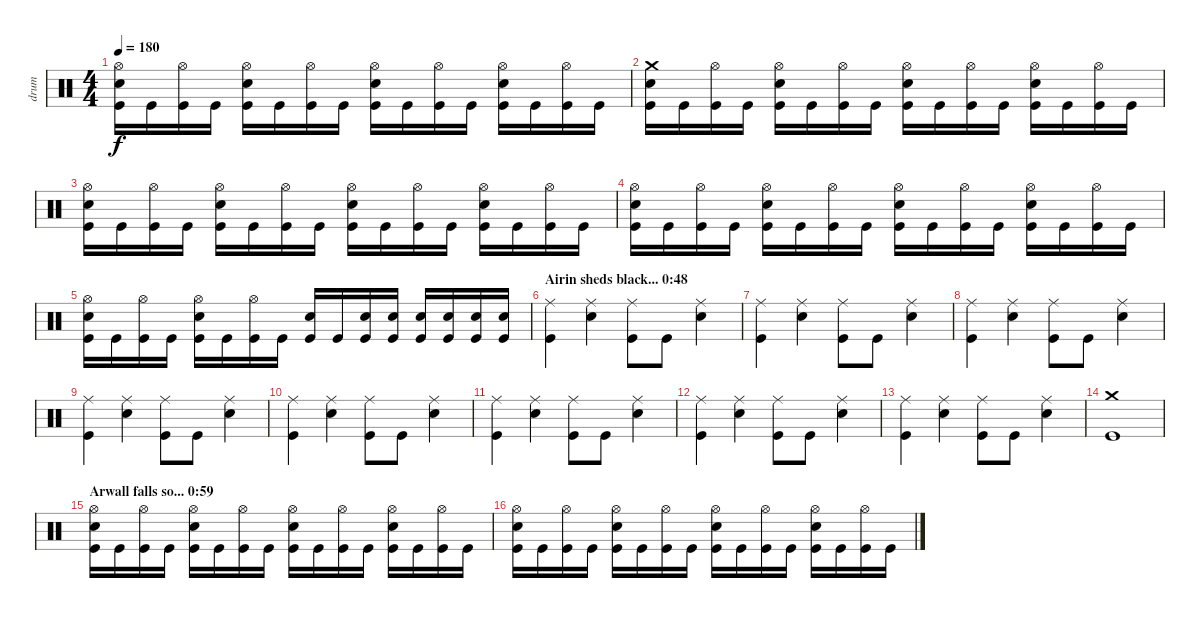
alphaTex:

\track ("drum" "drum") {instrument percussion}
\staff {score}
\articulation defaults
\ts (4 4)
\tempo 180
\clef neutral
\ks c
("Hi-Hat (open)" "Snare (hit) 2" "Kick (hit)").16{dy f} "Kick (hit)".16 ("Hi-Hat (open)" "Kick (hit)").16 "Kick (hit)".16 ("Hi-Hat (open)" "Snare (hit) 2" "Kick (hit)").16 "Kick (hit)".16 ("Hi-Hat (open)" "Kick (hit)").16 "Kick (hit)".16 ("Hi-Hat (open)" "Snare (hit) 2" "Kick (hit)").16 "Kick (hit)".16 ("Hi-Hat (open)" "Kick (hit)").16 "Kick (hit)".16 ("Hi-Hat (open)" "Snare (hit) 2" "Kick (hit)").16 "Kick (hit)".16 ("Hi-Hat (open)" "Kick (hit)").16 "Kick (hit)".16 |
("Crash medium (hit)" "Snare (hit) 2" "Kick (hit)").16 "Kick (hit)".16 ("Hi-Hat (open)" "Kick (hit)").16 "Kick (hit)".16 ("Hi-Hat (open)" "Snare (hit) 2" "Kick (hit)").16 "Kick (hit)".16 ("Hi-Hat (open)" "Kick (hit)").16 "Kick (hit)".16 ("Hi-Hat (open)" "Snare (hit) 2" "Kick (hit)").16 "Kick (hit)".16 ("Hi-Hat (open)" "Kick (hit)").16 "Kick (hit)".16 ("Hi-Hat (open)" "Snare (hit) 2" "Kick (hit)").16 "Kick (hit)".16 ("Hi-Hat (open)" "Kick (hit)").16 "Kick (hit)".16 |
("Hi-Hat (open)" "Snare (hit) 2" "Kick (hit)").16 "Kick (hit)".16 ("Hi-Hat (open)" "Kick (hit)").16 "Kick (hit)".16 ("Hi-Hat (open)" "Snare (hit) 2" "Kick (hit)").16 "Kick (hit)".16 ("Hi-Hat (open)" "Kick (hit)").16 "Kick (hit)".16 ("Hi-Hat (open)" "Snare (hit) 2" "Kick (hit)").16 "Kick (hit)".16 ("Hi-Hat (open)" "Kick (hit)").16 "Kick (hit)".16 ("Hi-Hat (open)" "Snare (hit) 2" "Kick (hit)").16 "Kick (hit)".16 ("Hi-Hat (open)" "Kick (hit)").16 "Kick (hit)".16 |
("Hi-Hat (open)" "Snare (hit) 2" "Kick (hit)").16 "Kick (hit)".16 ("Hi-Hat (open)" "Kick (hit)").16 "Kick (hit)".16 ("Hi-Hat (open)" "Snare (hit) 2" "Kick (hit)").16 "Kick (hit)".16 ("Hi-Hat (open)" "Kick (hit)").16 "Kick (hit)".16 ("Hi-Hat (open)" "Snare (hit) 2" "Kick (hit)").16 "Kick (hit)".16 ("Hi-Hat (open)" "Kick (hit)").16 "Kick (hit)".16 ("Hi-Hat (open)" "Snare (hit) 2" "Kick (hit)").16 "Kick (hit)".16 ("Hi-Hat (open)" "Kick (hit)").16 "Kick (hit)".16 |
("Hi-Hat (open)" "Snare (hit) 2" "Kick (hit)").16 "Kick (hit)".16 ("Hi-Hat (open)" "Kick (hit)").16 "Kick (hit)".16 ("Hi-Hat (open)" "Snare (hit) 2" "Kick (hit)").16 "Kick (hit)".16 ("Hi-Hat (open)" "Kick (hit)").16 "Kick (hit)".16 ("Snare (hit) 2" "Kick (hit)").16 "Kick (hit)".16 ("Snare (hit) 2" "Kick (hit)").16 ("Snare (hit) 2" "Kick (hit)").16 ("Snare (hit) 2" "Kick (hit)").16 ("Snare (hit) 2" "Kick (hit)").16 ("Snare (hit) 2" "Kick (hit)").16 ("Snare (hit) 2" "Kick (hit)").16 |
\section ("" "Airin sheds black... 0:48")
("Ride (middle)" "Kick (hit)").4 ("Ride (middle)" "Snare (hit) 2").4 ("Ride (middle)" "Kick (hit)").8 "Kick (hit)".8 ("Ride (middle)" "Snare (hit) 2").4 |
("Ride (middle)" "Kick (hit)").4 ("Ride (middle)" "Snare (hit) 2").4 ("Ride (middle)" "Kick (hit)").8 "Kick (hit)".8 ("Ride (middle)" "Snare (hit) 2").4 |
("Ride (middle)" "Kick (hit)").4 ("Ride (middle)" "Snare (hit) 2").4 ("Ride (middle)" "Kick (hit)").8 "Kick (hit)".8 ("Ride (middle)" "Snare (hit) 2").4 |
("Ride (middle)" "Kick (hit)").4 ("Ride (middle)" "Snare (hit) 2").4 ("Ride (middle)" "Kick (hit)").8 "Kick (hit)".8 ("Ride (middle)" "Snare (hit) 2").4 |
("Ride (middle)" "Kick (hit)").4 ("Ride (middle)" "Snare (hit) 2").4 ("Ride (middle)" "Kick (hit)").8 "Kick (hit)".8 ("Ride (middle)" "Snare (hit) 2").4 |
("Ride (middle)" "Kick (hit)").4 ("Ride (middle)" "Snare (hit) 2").4 ("Ride (middle)" "Kick (hit)").8 "Kick (hit)".8 ("Ride (middle)" "Snare (hit) 2").4 |
("Ride (middle)" "Kick (hit)").4 ("Ride (middle)" "Snare (hit) 2").4 ("Ride (middle)" "Kick (hit)").8 "Kick (hit)".8 ("Ride (middle)" "Snare (hit) 2").4 |
("Ride (middle)" "Kick (hit)").4 ("Ride (middle)" "Snare (hit) 2").4 ("Ride (middle)" "Kick (hit)").8 "Kick (hit)".8 ("Ride (middle)" "Snare (hit) 2").4 |
("Crash medium (hit)" "Kick (hit)").1 |
\section ("" "Arwall falls so... 0:59")
("Hi-Hat (open)" "Snare (hit) 2" "Kick (hit)").16 "Kick (hit)".16 ("Hi-Hat (open)" "Kick (hit)").16 "Kick (hit)".16 ("Hi-Hat (open)" "Snare (hit) 2" "Kick (hit)").16 "Kick (hit)".16 ("Hi-Hat (open)" "Kick (hit)").16 "Kick (hit)".16 ("Hi-Hat (open)" "Snare (hit) 2" "Kick (hit)").16 "Kick (hit)".16 ("Hi-Hat (open)" "Kick (hit)").16 "Kick (hit)".16 ("Hi-Hat (open)" "Snare (hit) 2" "Kick (hit)").16 "Kick (hit)".16 ("Hi-Hat (open)" "Kick (hit)").16 "Kick (hit)".16 |
("Hi-Hat (open)" "Snare (hit) 2" "Kick (hit)").16 "Kick (hit)".16 ("Hi-Hat (open)" "Kick (hit)").16 "Kick (hit)".16 ("Hi-Hat (open)" "Snare (hit) 2" "Kick (hit)").16 "Kick (hit)".16 ("Hi-Hat (open)" "Kick (hit)").16 "Kick (hit)".16 ("Hi-Hat (open)" "Snare (hit) 2" "Kick (hit)").16 "Kick (hit)".16 ("Hi-Hat (open)" "Kick (hit)").16 "Kick (hit)".16 ("Hi-Hat (open)" "Snare (hit) 2" "Kick (hit)").16 "Kick (hit)".16 ("Hi-Hat (open)" "Kick (hit)").16 "Kick (hit)".16
